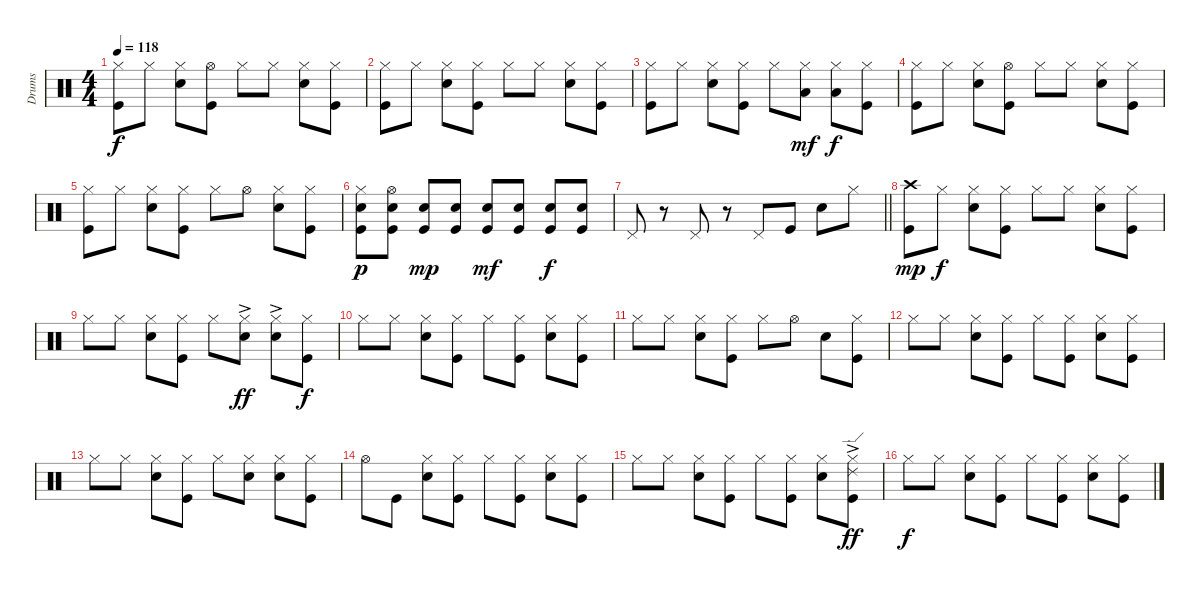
\track ("Drums" "Drums") {instrument percussion}
\staff {score}
\articulation defaults
\ts (4 4)
\tempo 118
\clef neutral
\ks c
("Hi-Hat (closed)" "Kick (hit)").8{dy f} "Hi-Hat (closed)".8 ("Hi-Hat (closed)" "Snare (hit) 2").8 ("Hi-Hat (open)" "Kick (hit)").8 "Hi-Hat (closed)".8 "Hi-Hat (closed)".8 ("Hi-Hat (closed)" "Snare (hit) 2").8 ("Hi-Hat (closed)" "Kick (hit)").8 |
("Hi-Hat (closed)" "Kick (hit)").8 "Hi-Hat (closed)".8 ("Hi-Hat (closed)" "Snare (hit) 2").8 ("Hi-Hat (closed)" "Kick (hit)").8 "Hi-Hat (closed)".8 "Hi-Hat (closed)".8 ("Hi-Hat (closed)" "Snare (hit) 2").8 ("Hi-Hat (closed)" "Kick (hit)").8 |
("Hi-Hat (closed)" "Kick (hit)").8 "Hi-Hat (closed)".8 ("Hi-Hat (closed)" "Snare (hit) 2").8 ("Hi-Hat (closed)" "Kick (hit)").8 "Hi-Hat (closed)".8 ("Hi-Hat (closed)" "Low Floor Tom (hit)").8{dy mf} ("Hi-Hat (closed)" "Low Floor Tom (hit)").8{dy f} ("Hi-Hat (closed)" "Kick (hit)").8 |
("Hi-Hat (closed)" "Kick (hit)").8 "Hi-Hat (closed)".8 ("Hi-Hat (closed)" "Snare (hit) 2").8 ("Hi-Hat (open)" "Kick (hit)").8 "Hi-Hat (closed)".8 "Hi-Hat (closed)".8 ("Hi-Hat (closed)" "Snare (hit) 2").8 ("Hi-Hat (closed)" "Kick (hit)").8 |
("Hi-Hat (closed)" "Kick (hit)").8 "Hi-Hat (closed)".8 ("Hi-Hat (closed)" "Snare (hit) 2").8 ("Hi-Hat (closed)" "Kick (hit)").8 "Hi-Hat (closed)".8 "Hi-Hat (open)".8 ("Hi-Hat (closed)" "Snare (hit) 2").8 ("Hi-Hat (closed)" "Kick (hit)").8 |
("Hi-Hat (closed)" "Snare (hit) 2" "Kick (hit)").8{dy p} ("Hi-Hat (open)" "Snare (hit) 2" "Kick (hit)").8 ("Snare (hit) 2" "Kick (hit)").8{dy mp} ("Snare (hit) 2" "Kick (hit)").8 ("Snare (hit) 2" "Kick (hit)").8{dy mf} ("Snare (hit) 2" "Kick (hit)").8 ("Snare (hit) 2" "Kick (hit)").8{dy f} ("Snare (hit) 2" "Kick (hit)").8 |
\barLineRight lightlight "Pedal Hi-Hat (hit)".8
r.8 "Pedal Hi-Hat (hit)".8 r.8 "Pedal Hi-Hat (hit)".8 "Kick (hit)".8 "Snare (hit) 2".8 "Hi-Hat (closed)".8 |
("Crash high (hit)" "Kick (hit)").8{dy mp} "Hi-Hat (closed)".8{dy f} ("Hi-Hat (closed)" "Snare (hit) 2").8 ("Hi-Hat (closed)" "Kick (hit)").8 "Hi-Hat (closed)".8 "Hi-Hat (closed)".8 ("Hi-Hat (closed)" "Snare (hit) 2").8 ("Hi-Hat (closed)" "Kick (hit)").8 |
"Hi-Hat (closed)".8 "Hi-Hat (closed)".8 ("Hi-Hat (closed)" "Snare (hit) 2").8 ("Hi-Hat (closed)" "Kick (hit)").8 "Hi-Hat (closed)".8 ("Hi-Hat (closed)" "Snare (hit) 2"{ac}).8{dy ff} ("Hi-Hat (closed)" "Snare (hit) 2"{ac}).8 ("Hi-Hat (closed)" "Kick (hit)").8{dy f} |
"Hi-Hat (closed)".8 "Hi-Hat (closed)".8 ("Hi-Hat (closed)" "Snare (hit) 2").8 ("Hi-Hat (closed)" "Kick (hit)").8 "Hi-Hat (closed)".8 ("Hi-Hat (closed)" "Kick (hit)").8 ("Hi-Hat (closed)" "Snare (hit) 2").8 ("Hi-Hat (closed)" "Kick (hit)").8 |
"Hi-Hat (closed)".8 "Hi-Hat (closed)".8 ("Hi-Hat (closed)" "Snare (hit) 2").8 ("Hi-Hat (closed)" "Kick (hit)").8 "Hi-Hat (closed)".8 "Hi-Hat (open)".8 "Snare (hit) 2".8 ("Hi-Hat (closed)" "Kick (hit)").8 |
"Hi-Hat (closed)".8 "Hi-Hat (closed)".8 ("Hi-Hat (closed)" "Snare (hit) 2").8 ("Hi-Hat (closed)" "Kick (hit)").8 "Hi-Hat (closed)".8 ("Hi-Hat (closed)" "Kick (hit)").8 ("Hi-Hat (closed)" "Snare (hit) 2").8 ("Hi-Hat (closed)" "Kick (hit)").8 |
"Hi-Hat (closed)".8 "Hi-Hat (closed)".8 ("Hi-Hat (closed)" "Snare (hit) 2").8 ("Hi-Hat (closed)" "Kick (hit)").8 "Hi-Hat (closed)".8 ("Hi-Hat (closed)" "Snare (hit) 2").8 ("Hi-Hat (closed)" "Snare (hit) 2").8 ("Hi-Hat (closed)" "Kick (hit)").8 |
"Hi-Hat (open)".8 "Kick (hit)".8 ("Hi-Hat (closed)" "Snare (hit) 2").8 ("Hi-Hat (closed)" "Kick (hit)").8 "Hi-Hat (closed)".8 ("Hi-Hat (closed)" "Kick (hit)").8 ("Hi-Hat (closed)" "Snare (hit) 2").8 ("Hi-Hat (closed)" "Kick (hit)").8 |
"Hi-Hat (closed)".8 "Hi-Hat (closed)".8 ("Hi-Hat (closed)" "Snare (hit) 2").8 ("Hi-Hat (closed)" "Kick (hit)").8 "Hi-Hat (closed)".8 ("Hi-Hat (closed)" "Kick (hit)").8 ("Hi-Hat (closed)" "Snare (hit) 2").8 ("Hi-Hat (closed)" "Ride (edge) 2"{ac} "Kick (hit)").8{dy ff} |
"Hi-Hat (closed)".8{dy f} "Hi-Hat (closed)".8 ("Hi-Hat (closed)" "Snare (hit) 2").8 ("Hi-Hat (closed)" "Kick (hit)").8 "Hi-Hat (closed)".8 ("Hi-Hat (closed)" "Kick (hit)").8 ("Hi-Hat (closed)" "Snare (hit) 2").8 ("Hi-Hat (closed)" "Kick (hit)").8
